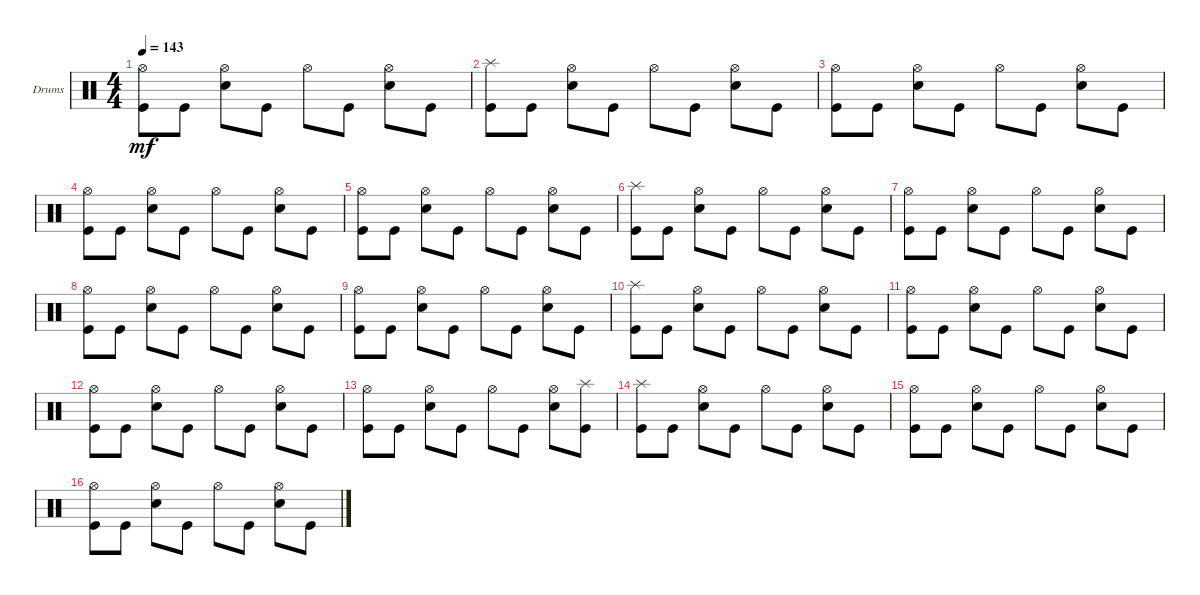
\defaultSystemsLayout 4
\bracketExtendMode groupsimilarinstruments
\firstSystemTrackNameOrientation horizontal
\otherSystemsTrackNameOrientation horizontal
\track ("Drumkit" "Drums") {instrument percussion}
\staff {score}
\articulation defaults
\ts (4 4)
\tempo 143
\clef neutral
\ks c
("Kick (hit)" "Hi-Hat (open)").8{dy mf} "Kick (hit)".8 ("Snare (hit) 2" "Hi-Hat (open)").8 "Kick (hit)".8 "Hi-Hat (open)".8 "Kick (hit)".8 ("Snare (hit) 2" "Hi-Hat (open)").8 "Kick (hit)".8 |
("Splash (hit)" "Kick (hit)").8 "Kick (hit)".8 ("Snare (hit) 2" "Hi-Hat (open)").8 "Kick (hit)".8 "Hi-Hat (open)".8 "Kick (hit)".8 ("Snare (hit) 2" "Hi-Hat (open)").8 "Kick (hit)".8 |
("Kick (hit)" "Hi-Hat (open)").8 "Kick (hit)".8 ("Snare (hit) 2" "Hi-Hat (open)").8 "Kick (hit)".8 "Hi-Hat (open)".8 "Kick (hit)".8 ("Snare (hit) 2" "Hi-Hat (open)").8 "Kick (hit)".8 |
("Kick (hit)" "Hi-Hat (open)").8 "Kick (hit)".8 ("Snare (hit) 2" "Hi-Hat (open)").8 "Kick (hit)".8 "Hi-Hat (open)".8 "Kick (hit)".8 ("Snare (hit) 2" "Hi-Hat (open)").8 "Kick (hit)".8 |
("Kick (hit)" "Hi-Hat (open)").8 "Kick (hit)".8 ("Snare (hit) 2" "Hi-Hat (open)").8 "Kick (hit)".8 "Hi-Hat (open)".8 "Kick (hit)".8 ("Snare (hit) 2" "Hi-Hat (open)").8 "Kick (hit)".8 |
("Splash (hit)" "Kick (hit)").8 "Kick (hit)".8 ("Snare (hit) 2" "Hi-Hat (open)").8 "Kick (hit)".8 "Hi-Hat (open)".8 "Kick (hit)".8 ("Snare (hit) 2" "Hi-Hat (open)").8 "Kick (hit)".8 |
("Kick (hit)" "Hi-Hat (open)").8 "Kick (hit)".8 ("Snare (hit) 2" "Hi-Hat (open)").8 "Kick (hit)".8 "Hi-Hat (open)".8 "Kick (hit)".8 ("Snare (hit) 2" "Hi-Hat (open)").8 "Kick (hit)".8 |
("Kick (hit)" "Hi-Hat (open)").8 "Kick (hit)".8 ("Snare (hit) 2" "Hi-Hat (open)").8 "Kick (hit)".8 "Hi-Hat (open)".8 "Kick (hit)".8 ("Snare (hit) 2" "Hi-Hat (open)").8 "Kick (hit)".8 |
("Kick (hit)" "Hi-Hat (open)").8 "Kick (hit)".8 ("Snare (hit) 2" "Hi-Hat (open)").8 "Kick (hit)".8 "Hi-Hat (open)".8 "Kick (hit)".8 ("Snare (hit) 2" "Hi-Hat (open)").8 "Kick (hit)".8 |
("Splash (hit)" "Kick (hit)").8 "Kick (hit)".8 ("Snare (hit) 2" "Hi-Hat (open)").8 "Kick (hit)".8 "Hi-Hat (open)".8 "Kick (hit)".8 ("Snare (hit) 2" "Hi-Hat (open)").8 "Kick (hit)".8 |
("Kick (hit)" "Hi-Hat (open)").8 "Kick (hit)".8 ("Snare (hit) 2" "Hi-Hat (open)").8 "Kick (hit)".8 "Hi-Hat (open)".8 "Kick (hit)".8 ("Snare (hit) 2" "Hi-Hat (open)").8 "Kick (hit)".8 |
("Kick (hit)" "Hi-Hat (open)").8 "Kick (hit)".8 ("Snare (hit) 2" "Hi-Hat (open)").8 "Kick (hit)".8 "Hi-Hat (open)".8 "Kick (hit)".8 ("Snare (hit) 2" "Hi-Hat (open)").8 "Kick (hit)".8 |
("Kick (hit)" "Hi-Hat (open)").8 "Kick (hit)".8 ("Snare (hit) 2" "Hi-Hat (open)").8 "Kick (hit)".8 "Hi-Hat (open)".8 "Kick (hit)".8 ("Snare (hit) 2" "Hi-Hat (open)").8 ("Kick (hit)" "Splash (hit)").8 |
("Splash (hit)" "Kick (hit)").8 "Kick (hit)".8 ("Snare (hit) 2" "Hi-Hat (open)").8 "Kick (hit)".8 "Hi-Hat (open)".8 "Kick (hit)".8 ("Snare (hit) 2" "Hi-Hat (open)").8 "Kick (hit)".8 |
("Kick (hit)" "Hi-Hat (open)").8 "Kick (hit)".8 ("Snare (hit) 2" "Hi-Hat (open)").8 "Kick (hit)".8 "Hi-Hat (open)".8 "Kick (hit)".8 ("Snare (hit) 2" "Hi-Hat (open)").8 "Kick (hit)".8 |
("Kick (hit)" "Hi-Hat (open)").8 "Kick (hit)".8 ("Snare (hit) 2" "Hi-Hat (open)").8 "Kick (hit)".8 "Hi-Hat (open)".8 "Kick (hit)".8 ("Snare (hit) 2" "Hi-Hat (open)").8 "Kick (hit)".8
